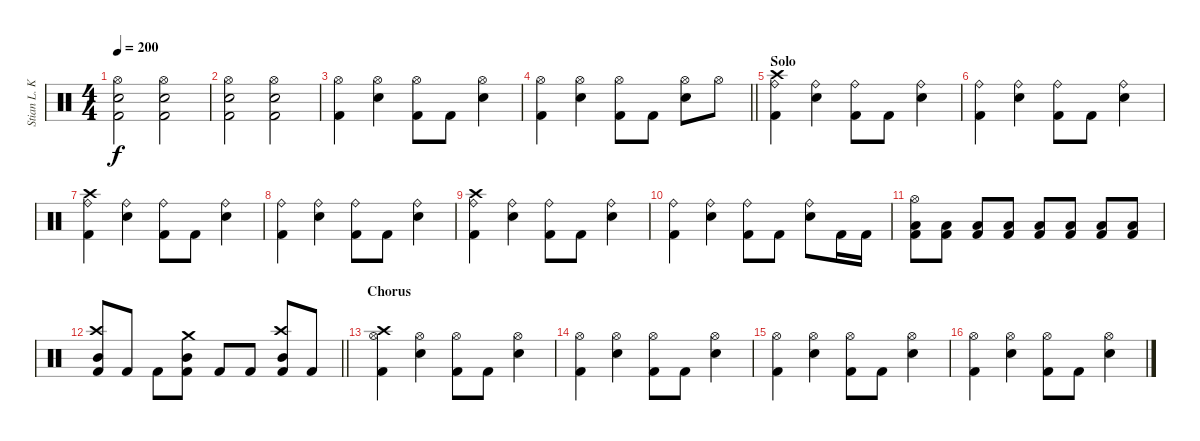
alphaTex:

\track ("Stian L. Kristoffersen - Drums" "Stian L. K") {instrument percussion}
\staff {score}
\articulation defaults
\ts (4 4)
\tempo 200
\clef neutral
\ks c
("Hi-Hat (open)" "Electric Snare (hit)" "Kick (hit) 2").2{dy f} ("Hi-Hat (open)" "Electric Snare (hit)" "Kick (hit) 2").2 |
("Hi-Hat (open)" "Electric Snare (hit)" "Kick (hit) 2").2 ("Hi-Hat (open)" "Electric Snare (hit)" "Kick (hit) 2").2 |
("Hi-Hat (open)" "Kick (hit) 2").4 ("Hi-Hat (open)" "Electric Snare (hit)").4 ("Hi-Hat (open)" "Kick (hit) 2").8 "Kick (hit) 2".8 ("Hi-Hat (open)" "Electric Snare (hit)").4 |
\barLineRight lightlight
("Hi-Hat (open)" "Kick (hit) 2").4 ("Hi-Hat (open)" "Electric Snare (hit)").4 ("Hi-Hat (open)" "Kick (hit) 2").8 "Kick (hit) 2".8 ("Hi-Hat (open)" "Electric Snare (hit)").8 "Hi-Hat (open)".8 |
\section ("" "Solo")
("Crash high (hit)" "Ride (bell)" "Kick (hit) 2").4 ("Ride (bell)" "Electric Snare (hit)").4 ("Ride (bell)" "Kick (hit) 2").8 "Kick (hit) 2".8 ("Ride (bell)" "Electric Snare (hit)").4 |
("Ride (bell)" "Kick (hit) 2").4 ("Ride (bell)" "Electric Snare (hit)").4 ("Ride (bell)" "Kick (hit) 2").8 "Kick (hit) 2".8 ("Ride (bell)" "Electric Snare (hit)").4 |
("Crash high (hit)" "Ride (bell)" "Kick (hit) 2").4 ("Ride (bell)" "Electric Snare (hit)").4 ("Ride (bell)" "Kick (hit) 2").8 "Kick (hit) 2".8 ("Ride (bell)" "Electric Snare (hit)").4 |
("Ride (bell)" "Kick (hit) 2").4 ("Ride (bell)" "Electric Snare (hit)").4 ("Ride (bell)" "Kick (hit) 2").8 "Kick (hit) 2".8 ("Ride (bell)" "Electric Snare (hit)").4 |
("Crash high (hit)" "Ride (bell)" "Kick (hit) 2").4 ("Ride (bell)" "Electric Snare (hit)").4 ("Ride (bell)" "Kick (hit) 2").8 "Kick (hit) 2".8 ("Ride (bell)" "Electric Snare (hit)").4 |
("Ride (bell)" "Kick (hit) 2").4 ("Ride (bell)" "Electric Snare (hit)").4 ("Ride (bell)" "Kick (hit) 2").8 "Kick (hit) 2".8 ("Ride (bell)" "Electric Snare (hit)").8 "Kick (hit) 2".16 "Kick (hit) 2".16 |
("Hi-Hat (open)" "Low Tom (hit)" "Kick (hit) 2").8 ("Low Tom (hit)" "Kick (hit) 2").8 ("Low Tom (hit)" "Kick (hit) 2").8 ("Low Tom (hit)" "Kick (hit) 2").8 ("Low Tom (hit)" "Kick (hit) 2").8 ("Low Tom (hit)" "Kick (hit) 2").8 ("Low Tom (hit)" "Kick (hit) 2").8 ("Low Tom (hit)" "Kick (hit) 2").8 |
\barLineRight lightlight
("Crash high (hit)" "Mid Tom (hit)" "Kick (hit) 2").8 "Kick (hit) 2".8 "Kick (hit) 2".8 ("Crash medium (hit)" "Mid Tom (hit)" "Kick (hit) 2").8 "Kick (hit) 2".8 "Kick (hit) 2".8 ("Crash high (hit)" "Mid Tom (hit)" "Kick (hit) 2").8 "Kick (hit) 2".8 |
\section ("" "Chorus")
("Crash high (hit)" "Hi-Hat (open)" "Kick (hit) 2").4 ("Hi-Hat (open)" "Electric Snare (hit)").4 ("Hi-Hat (open)" "Kick (hit) 2").8 "Kick (hit) 2".8 ("Hi-Hat (open)" "Electric Snare (hit)").4 |
("Hi-Hat (open)" "Kick (hit) 2").4 ("Hi-Hat (open)" "Electric Snare (hit)").4 ("Hi-Hat (open)" "Kick (hit) 2").8 "Kick (hit) 2".8 ("Hi-Hat (open)" "Electric Snare (hit)").4 |
("Hi-Hat (open)" "Kick (hit) 2").4 ("Hi-Hat (open)" "Electric Snare (hit)").4 ("Hi-Hat (open)" "Kick (hit) 2").8 "Kick (hit) 2".8 ("Hi-Hat (open)" "Electric Snare (hit)").4 |
("Hi-Hat (open)" "Kick (hit) 2").4 ("Hi-Hat (open)" "Electric Snare (hit)").4 ("Hi-Hat (open)" "Kick (hit) 2").8 "Kick (hit) 2".8 ("Hi-Hat (open)" "Electric Snare (hit)").4
